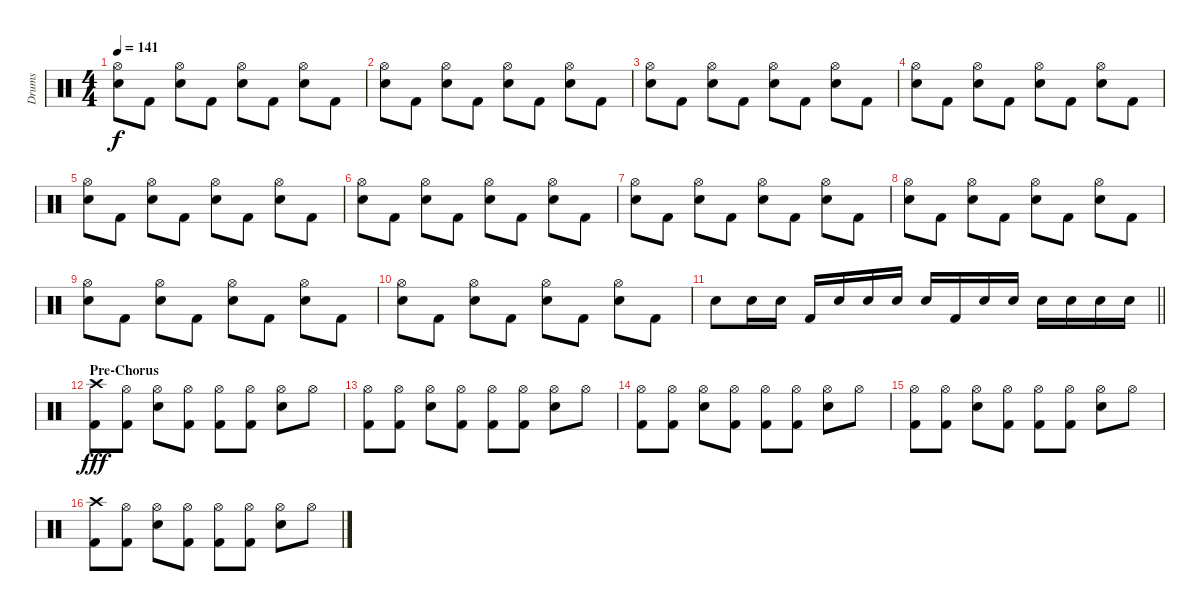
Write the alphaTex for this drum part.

\track ("Drums" "Drums") {instrument percussion}
\staff {score}
\articulation defaults
\ts (4 4)
\tempo 141
\clef neutral
\ks c
("Hi-Hat (open)" "Electric Snare (hit)").8{dy f} "Kick (hit) 2".8 ("Hi-Hat (open)" "Electric Snare (hit)").8 "Kick (hit) 2".8 ("Hi-Hat (open)" "Electric Snare (hit)").8 "Kick (hit) 2".8 ("Hi-Hat (open)" "Electric Snare (hit)").8 "Kick (hit) 2".8 |
("Hi-Hat (open)" "Electric Snare (hit)").8 "Kick (hit) 2".8 ("Hi-Hat (open)" "Electric Snare (hit)").8 "Kick (hit) 2".8 ("Hi-Hat (open)" "Electric Snare (hit)").8 "Kick (hit) 2".8 ("Hi-Hat (open)" "Electric Snare (hit)").8 "Kick (hit) 2".8 |
("Hi-Hat (open)" "Electric Snare (hit)").8 "Kick (hit) 2".8 ("Hi-Hat (open)" "Electric Snare (hit)").8 "Kick (hit) 2".8 ("Hi-Hat (open)" "Electric Snare (hit)").8 "Kick (hit) 2".8 ("Hi-Hat (open)" "Electric Snare (hit)").8 "Kick (hit) 2".8 |
("Hi-Hat (open)" "Electric Snare (hit)").8 "Kick (hit) 2".8 ("Hi-Hat (open)" "Electric Snare (hit)").8 "Kick (hit) 2".8 ("Hi-Hat (open)" "Electric Snare (hit)").8 "Kick (hit) 2".8 ("Hi-Hat (open)" "Electric Snare (hit)").8 "Kick (hit) 2".8 |
("Hi-Hat (open)" "Electric Snare (hit)").8 "Kick (hit) 2".8 ("Hi-Hat (open)" "Electric Snare (hit)").8 "Kick (hit) 2".8 ("Hi-Hat (open)" "Electric Snare (hit)").8 "Kick (hit) 2".8 ("Hi-Hat (open)" "Electric Snare (hit)").8 "Kick (hit) 2".8 |
("Hi-Hat (open)" "Electric Snare (hit)").8 "Kick (hit) 2".8 ("Hi-Hat (open)" "Electric Snare (hit)").8 "Kick (hit) 2".8 ("Hi-Hat (open)" "Electric Snare (hit)").8 "Kick (hit) 2".8 ("Hi-Hat (open)" "Electric Snare (hit)").8 "Kick (hit) 2".8 |
("Hi-Hat (open)" "Electric Snare (hit)").8 "Kick (hit) 2".8 ("Hi-Hat (open)" "Electric Snare (hit)").8 "Kick (hit) 2".8 ("Hi-Hat (open)" "Electric Snare (hit)").8 "Kick (hit) 2".8 ("Hi-Hat (open)" "Electric Snare (hit)").8 "Kick (hit) 2".8 |
("Hi-Hat (open)" "Electric Snare (hit)").8 "Kick (hit) 2".8 ("Hi-Hat (open)" "Electric Snare (hit)").8 "Kick (hit) 2".8 ("Hi-Hat (open)" "Electric Snare (hit)").8 "Kick (hit) 2".8 ("Hi-Hat (open)" "Electric Snare (hit)").8 "Kick (hit) 2".8 |
("Hi-Hat (open)" "Electric Snare (hit)").8 "Kick (hit) 2".8 ("Hi-Hat (open)" "Electric Snare (hit)").8 "Kick (hit) 2".8 ("Hi-Hat (open)" "Electric Snare (hit)").8 "Kick (hit) 2".8 ("Hi-Hat (open)" "Electric Snare (hit)").8 "Kick (hit) 2".8 |
("Hi-Hat (open)" "Electric Snare (hit)").8 "Kick (hit) 2".8 ("Hi-Hat (open)" "Electric Snare (hit)").8 "Kick (hit) 2".8 ("Hi-Hat (open)" "Electric Snare (hit)").8 "Kick (hit) 2".8 ("Hi-Hat (open)" "Electric Snare (hit)").8 "Kick (hit) 2".8 |
\barLineRight lightlight "Electric Snare (hit)".8 "Electric Snare (hit)".16 "Electric Snare (hit)".16 "Kick (hit) 2".16 "Electric Snare (hit)".16 "Electric Snare (hit)".16 "Electric Snare (hit)".16 "Electric Snare (hit)".16 "Kick (hit) 2".16 "Electric Snare (hit)".16 "Electric Snare (hit)".16 "Electric Snare (hit)".16 "Electric Snare (hit)".16 "Electric Snare (hit)".16 "Electric Snare (hit)".16
|
\section ("" "Pre-Chorus")
("Crash high (hit)" "Kick (hit) 2").8{dy fff} ("Hi-Hat (open)" "Kick (hit) 2").8 ("Hi-Hat (open)" "Electric Snare (hit)").8 ("Hi-Hat (open)" "Kick (hit) 2").8 ("Hi-Hat (open)" "Kick (hit) 2").8 ("Hi-Hat (open)" "Kick (hit) 2").8 ("Hi-Hat (open)" "Electric Snare (hit)").8 "Hi-Hat (open)".8 |
("Hi-Hat (open)" "Kick (hit) 2").8 ("Hi-Hat (open)" "Kick (hit) 2").8 ("Hi-Hat (open)" "Electric Snare (hit)").8 ("Hi-Hat (open)" "Kick (hit) 2").8 ("Hi-Hat (open)" "Kick (hit) 2").8 ("Hi-Hat (open)" "Kick (hit) 2").8 ("Hi-Hat (open)" "Electric Snare (hit)").8 "Hi-Hat (open)".8 |
("Hi-Hat (open)" "Kick (hit) 2").8 ("Hi-Hat (open)" "Kick (hit) 2").8 ("Hi-Hat (open)" "Electric Snare (hit)").8 ("Hi-Hat (open)" "Kick (hit) 2").8 ("Hi-Hat (open)" "Kick (hit) 2").8 ("Hi-Hat (open)" "Kick (hit) 2").8 ("Hi-Hat (open)" "Electric Snare (hit)").8 "Hi-Hat (open)".8 |
("Hi-Hat (open)" "Kick (hit) 2").8 ("Hi-Hat (open)" "Kick (hit) 2").8 ("Hi-Hat (open)" "Electric Snare (hit)").8 ("Hi-Hat (open)" "Kick (hit) 2").8 ("Hi-Hat (open)" "Kick (hit) 2").8 ("Hi-Hat (open)" "Kick (hit) 2").8 ("Hi-Hat (open)" "Electric Snare (hit)").8 "Hi-Hat (open)".8 |
("Crash high (hit)" "Kick (hit) 2").8 ("Hi-Hat (open)" "Kick (hit) 2").8 ("Hi-Hat (open)" "Electric Snare (hit)").8 ("Hi-Hat (open)" "Kick (hit) 2").8 ("Hi-Hat (open)" "Kick (hit) 2").8 ("Hi-Hat (open)" "Kick (hit) 2").8 ("Hi-Hat (open)" "Electric Snare (hit)").8 "Hi-Hat (open)".8
